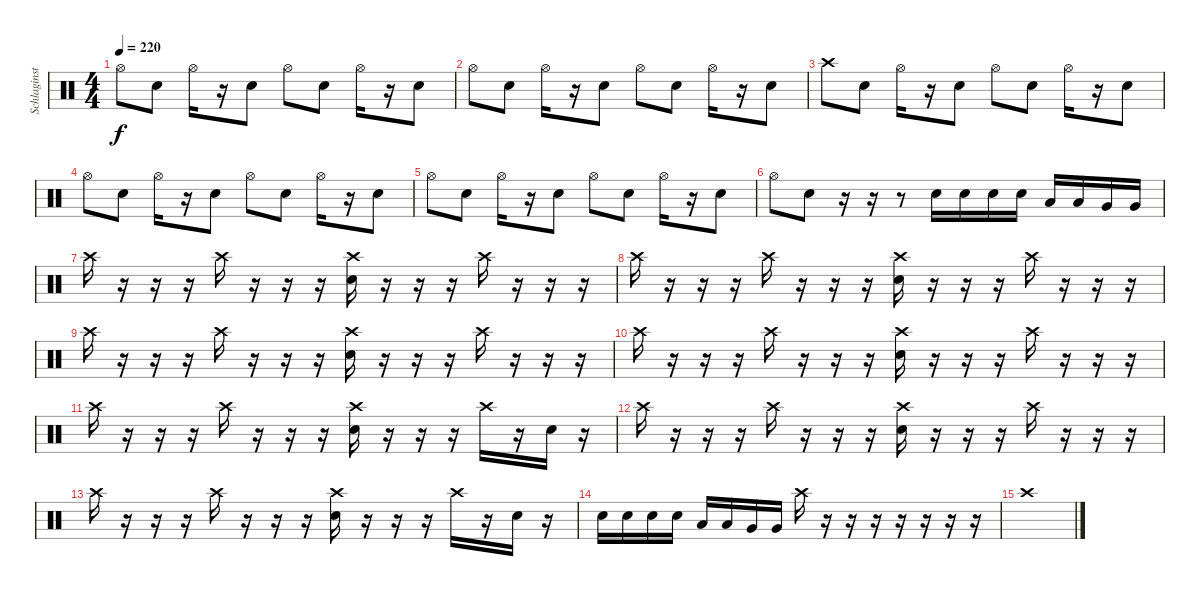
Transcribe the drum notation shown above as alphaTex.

\track ("Schlaginstrumente - Auswahl" "Schlaginst") {instrument percussion}
\staff {score}
\articulation defaults
\ts (4 4)
\tempo 220
\clef neutral
\ks c "Hi-Hat (open)".8{dy f} "Electric Snare (hit)".8 "Hi-Hat (open)".16
r.16 "Electric Snare (hit)".8 "Hi-Hat (open)".8 "Electric Snare (hit)".8 "Hi-Hat (open)".16 r.16 "Electric Snare (hit)".8 |
"Hi-Hat (open)".8 "Electric Snare (hit)".8 "Hi-Hat (open)".16 r.16 "Electric Snare (hit)".8 "Hi-Hat (open)".8 "Electric Snare (hit)".8 "Hi-Hat (open)".16 r.16 "Electric Snare (hit)".8 |
"Crash high (hit)".8 "Electric Snare (hit)".8 "Hi-Hat (open)".16 r.16 "Electric Snare (hit)".8 "Hi-Hat (open)".8 "Electric Snare (hit)".8 "Hi-Hat (open)".16 r.16 "Electric Snare (hit)".8 |
"Hi-Hat (open)".8 "Electric Snare (hit)".8 "Hi-Hat (open)".16 r.16 "Electric Snare (hit)".8 "Hi-Hat (open)".8 "Electric Snare (hit)".8 "Hi-Hat (open)".16 r.16 "Electric Snare (hit)".8 |
"Hi-Hat (open)".8 "Electric Snare (hit)".8 "Hi-Hat (open)".16 r.16 "Electric Snare (hit)".8 "Hi-Hat (open)".8 "Electric Snare (hit)".8 "Hi-Hat (open)".16 r.16 "Electric Snare (hit)".8 |
"Hi-Hat (open)".8 "Electric Snare (hit)".8 r.16 r.16 r.8 "Electric Snare (hit)".16 "Electric Snare (hit)".16 "Electric Snare (hit)".16 "Electric Snare (hit)".16 "Low Tom (hit)".16 "Low Tom (hit)".16 "Very Low Tom (hit)".16 "Very Low Tom (hit)".16 |
"Crash high (hit)".16 r.16 r.16 r.16 "Crash high (hit)".16 r.16 r.16 r.16 ("Crash high (hit)" "Electric Snare (hit)").16 r.16 r.16 r.16 "Crash high (hit)".16 r.16 r.16 r.16 |
"Crash high (hit)".16 r.16 r.16 r.16 "Crash high (hit)".16 r.16 r.16 r.16 ("Crash high (hit)" "Electric Snare (hit)").16 r.16 r.16 r.16 "Crash high (hit)".16 r.16 r.16 r.16 |
"Crash high (hit)".16 r.16 r.16 r.16 "Crash high (hit)".16 r.16 r.16 r.16 ("Crash high (hit)" "Electric Snare (hit)").16 r.16 r.16 r.16 "Crash high (hit)".16 r.16 r.16 r.16 |
"Crash high (hit)".16 r.16 r.16 r.16 "Crash high (hit)".16 r.16 r.16 r.16 ("Crash high (hit)" "Electric Snare (hit)").16 r.16 r.16 r.16 "Crash high (hit)".16 r.16 r.16 r.16 |
"Crash high (hit)".16 r.16 r.16 r.16 "Crash high (hit)".16 r.16 r.16 r.16 ("Crash high (hit)" "Electric Snare (hit)").16 r.16 r.16 r.16 "Crash high (hit)".16 r.16 "Electric Snare (hit)".16 r.16 |
"Crash high (hit)".16 r.16 r.16 r.16 "Crash high (hit)".16 r.16 r.16 r.16 ("Crash high (hit)" "Electric Snare (hit)").16 r.16 r.16 r.16 "Crash high (hit)".16 r.16 r.16 r.16 |
"Crash high (hit)".16 r.16 r.16 r.16 "Crash high (hit)".16 r.16 r.16 r.16 ("Crash high (hit)" "Electric Snare (hit)").16 r.16 r.16 r.16 "Crash high (hit)".16 r.16 "Electric Snare (hit)".16 r.16 |
"Electric Snare (hit)".16 "Electric Snare (hit)".16 "Electric Snare (hit)".16 "Electric Snare (hit)".16 "Low Tom (hit)".16 "Low Tom (hit)".16 "Very Low Tom (hit)".16 "Very Low Tom (hit)".16 "Crash high (hit)".16 r.16 r.16 r.16 r.16 r.16 r.16 r.16 |
"Crash high (hit)".1
